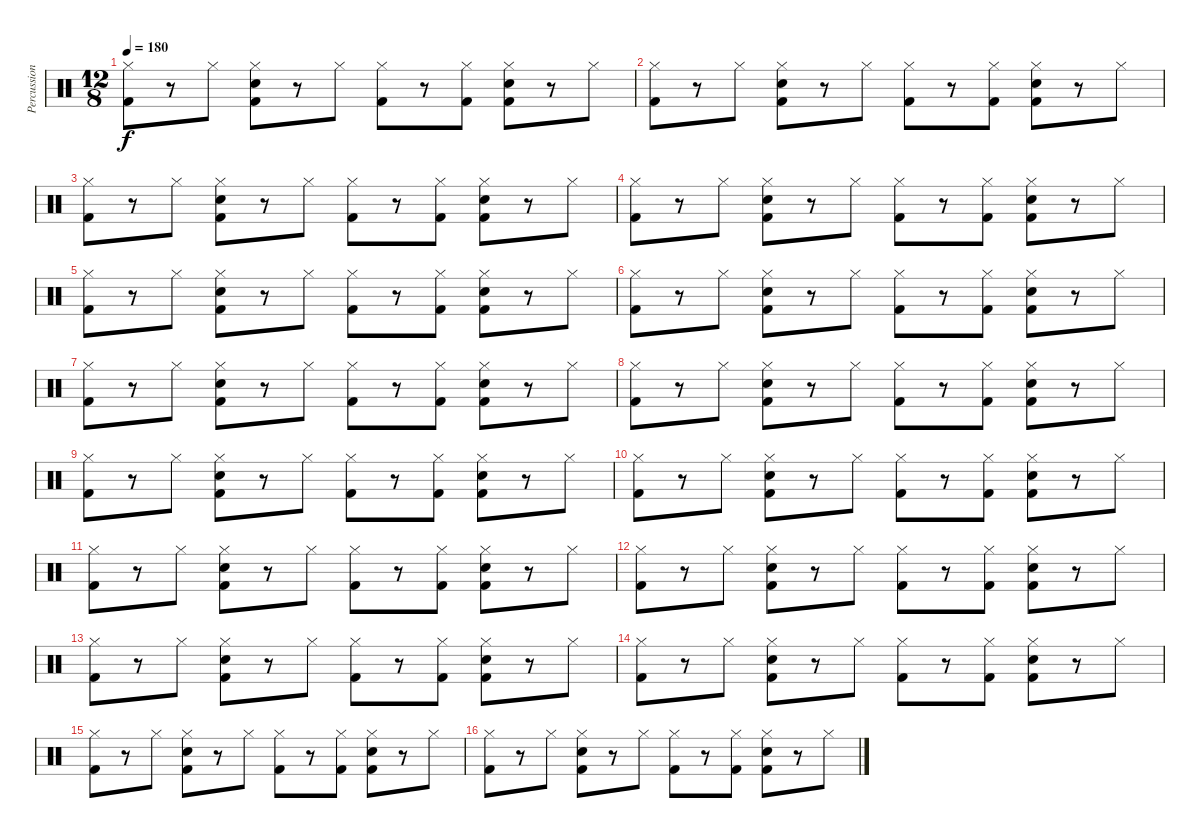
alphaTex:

\track ("Percussions" "Percussion") {instrument percussion}
\staff {score}
\articulation defaults
\ts (12 8)
\tempo 180
\clef neutral
\ks c
("Kick (hit) 2" "Hi-Hat (closed)").8{dy f} r.8 "Hi-Hat (closed)".8 ("Snare (hit) 2" "Kick (hit) 2" "Hi-Hat (closed)").8 r.8 "Hi-Hat (closed)".8 ("Kick (hit) 2" "Hi-Hat (closed)").8 r.8 ("Kick (hit) 2" "Hi-Hat (closed)").8 ("Snare (hit) 2" "Kick (hit) 2" "Hi-Hat (closed)").8 r.8 "Hi-Hat (closed)".8 |
("Kick (hit) 2" "Hi-Hat (closed)").8 r.8 "Hi-Hat (closed)".8 ("Snare (hit) 2" "Kick (hit) 2" "Hi-Hat (closed)").8 r.8 "Hi-Hat (closed)".8 ("Kick (hit) 2" "Hi-Hat (closed)").8 r.8 ("Kick (hit) 2" "Hi-Hat (closed)").8 ("Snare (hit) 2" "Kick (hit) 2" "Hi-Hat (closed)").8 r.8 "Hi-Hat (closed)".8 |
("Kick (hit) 2" "Hi-Hat (closed)").8 r.8 "Hi-Hat (closed)".8 ("Snare (hit) 2" "Kick (hit) 2" "Hi-Hat (closed)").8 r.8 "Hi-Hat (closed)".8 ("Kick (hit) 2" "Hi-Hat (closed)").8 r.8 ("Kick (hit) 2" "Hi-Hat (closed)").8 ("Snare (hit) 2" "Kick (hit) 2" "Hi-Hat (closed)").8 r.8 "Hi-Hat (closed)".8 |
("Kick (hit) 2" "Hi-Hat (closed)").8 r.8 "Hi-Hat (closed)".8 ("Snare (hit) 2" "Kick (hit) 2" "Hi-Hat (closed)").8 r.8 "Hi-Hat (closed)".8 ("Kick (hit) 2" "Hi-Hat (closed)").8 r.8 ("Kick (hit) 2" "Hi-Hat (closed)").8 ("Snare (hit) 2" "Kick (hit) 2" "Hi-Hat (closed)").8 r.8 "Hi-Hat (closed)".8 |
("Kick (hit) 2" "Hi-Hat (closed)").8 r.8 "Hi-Hat (closed)".8 ("Snare (hit) 2" "Kick (hit) 2" "Hi-Hat (closed)").8 r.8 "Hi-Hat (closed)".8 ("Kick (hit) 2" "Hi-Hat (closed)").8 r.8 ("Kick (hit) 2" "Hi-Hat (closed)").8 ("Snare (hit) 2" "Kick (hit) 2" "Hi-Hat (closed)").8 r.8 "Hi-Hat (closed)".8 |
("Kick (hit) 2" "Hi-Hat (closed)").8 r.8 "Hi-Hat (closed)".8 ("Snare (hit) 2" "Kick (hit) 2" "Hi-Hat (closed)").8 r.8 "Hi-Hat (closed)".8 ("Kick (hit) 2" "Hi-Hat (closed)").8 r.8 ("Kick (hit) 2" "Hi-Hat (closed)").8 ("Snare (hit) 2" "Kick (hit) 2" "Hi-Hat (closed)").8 r.8 "Hi-Hat (closed)".8 |
("Kick (hit) 2" "Hi-Hat (closed)").8 r.8 "Hi-Hat (closed)".8 ("Snare (hit) 2" "Kick (hit) 2" "Hi-Hat (closed)").8 r.8 "Hi-Hat (closed)".8 ("Kick (hit) 2" "Hi-Hat (closed)").8 r.8 ("Kick (hit) 2" "Hi-Hat (closed)").8 ("Snare (hit) 2" "Kick (hit) 2" "Hi-Hat (closed)").8 r.8 "Hi-Hat (closed)".8 |
("Kick (hit) 2" "Hi-Hat (closed)").8 r.8 "Hi-Hat (closed)".8 ("Snare (hit) 2" "Kick (hit) 2" "Hi-Hat (closed)").8 r.8 "Hi-Hat (closed)".8 ("Kick (hit) 2" "Hi-Hat (closed)").8 r.8 ("Kick (hit) 2" "Hi-Hat (closed)").8 ("Snare (hit) 2" "Kick (hit) 2" "Hi-Hat (closed)").8 r.8 "Hi-Hat (closed)".8 |
("Kick (hit) 2" "Hi-Hat (closed)").8 r.8 "Hi-Hat (closed)".8 ("Snare (hit) 2" "Kick (hit) 2" "Hi-Hat (closed)").8 r.8 "Hi-Hat (closed)".8 ("Kick (hit) 2" "Hi-Hat (closed)").8 r.8 ("Kick (hit) 2" "Hi-Hat (closed)").8 ("Snare (hit) 2" "Kick (hit) 2" "Hi-Hat (closed)").8 r.8 "Hi-Hat (closed)".8 |
("Kick (hit) 2" "Hi-Hat (closed)").8 r.8 "Hi-Hat (closed)".8 ("Snare (hit) 2" "Kick (hit) 2" "Hi-Hat (closed)").8 r.8 "Hi-Hat (closed)".8 ("Kick (hit) 2" "Hi-Hat (closed)").8 r.8 ("Kick (hit) 2" "Hi-Hat (closed)").8 ("Snare (hit) 2" "Kick (hit) 2" "Hi-Hat (closed)").8 r.8 "Hi-Hat (closed)".8 |
("Kick (hit) 2" "Hi-Hat (closed)").8 r.8 "Hi-Hat (closed)".8 ("Snare (hit) 2" "Kick (hit) 2" "Hi-Hat (closed)").8 r.8 "Hi-Hat (closed)".8 ("Kick (hit) 2" "Hi-Hat (closed)").8 r.8 ("Kick (hit) 2" "Hi-Hat (closed)").8 ("Snare (hit) 2" "Kick (hit) 2" "Hi-Hat (closed)").8 r.8 "Hi-Hat (closed)".8 |
("Kick (hit) 2" "Hi-Hat (closed)").8 r.8 "Hi-Hat (closed)".8 ("Snare (hit) 2" "Kick (hit) 2" "Hi-Hat (closed)").8 r.8 "Hi-Hat (closed)".8 ("Kick (hit) 2" "Hi-Hat (closed)").8 r.8 ("Kick (hit) 2" "Hi-Hat (closed)").8 ("Snare (hit) 2" "Kick (hit) 2" "Hi-Hat (closed)").8 r.8 "Hi-Hat (closed)".8 |
("Kick (hit) 2" "Hi-Hat (closed)").8 r.8 "Hi-Hat (closed)".8 ("Snare (hit) 2" "Kick (hit) 2" "Hi-Hat (closed)").8 r.8 "Hi-Hat (closed)".8 ("Kick (hit) 2" "Hi-Hat (closed)").8 r.8 ("Kick (hit) 2" "Hi-Hat (closed)").8 ("Snare (hit) 2" "Kick (hit) 2" "Hi-Hat (closed)").8 r.8 "Hi-Hat (closed)".8 |
("Kick (hit) 2" "Hi-Hat (closed)").8 r.8 "Hi-Hat (closed)".8 ("Snare (hit) 2" "Kick (hit) 2" "Hi-Hat (closed)").8 r.8 "Hi-Hat (closed)".8 ("Kick (hit) 2" "Hi-Hat (closed)").8 r.8 ("Kick (hit) 2" "Hi-Hat (closed)").8 ("Snare (hit) 2" "Kick (hit) 2" "Hi-Hat (closed)").8 r.8 "Hi-Hat (closed)".8 |
("Kick (hit) 2" "Hi-Hat (closed)").8 r.8 "Hi-Hat (closed)".8 ("Snare (hit) 2" "Kick (hit) 2" "Hi-Hat (closed)").8 r.8 "Hi-Hat (closed)".8 ("Kick (hit) 2" "Hi-Hat (closed)").8 r.8 ("Kick (hit) 2" "Hi-Hat (closed)").8 ("Snare (hit) 2" "Kick (hit) 2" "Hi-Hat (closed)").8 r.8 "Hi-Hat (closed)".8 |
("Kick (hit) 2" "Hi-Hat (closed)").8 r.8 "Hi-Hat (closed)".8 ("Snare (hit) 2" "Kick (hit) 2" "Hi-Hat (closed)").8 r.8 "Hi-Hat (closed)".8 ("Kick (hit) 2" "Hi-Hat (closed)").8 r.8 ("Kick (hit) 2" "Hi-Hat (closed)").8 ("Snare (hit) 2" "Kick (hit) 2" "Hi-Hat (closed)").8 r.8 "Hi-Hat (closed)".8
